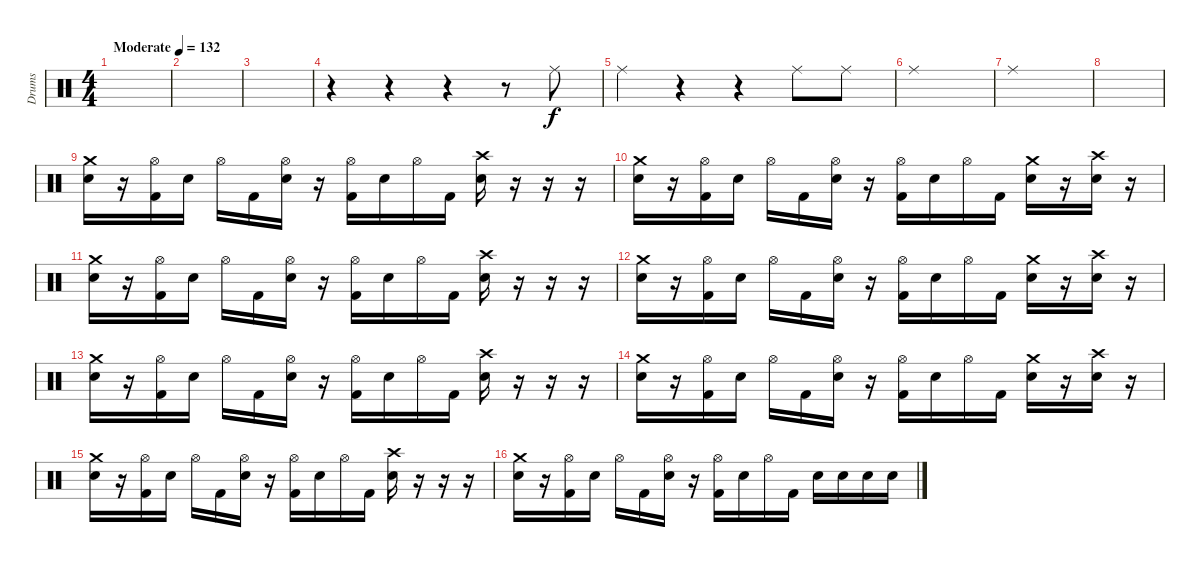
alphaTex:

\track ("Drums" "Drums") {instrument percussion}
\staff
\articulation defaults
\ts (4 4)
\tempo (132 "Moderate")
\clef neutral
\ks c
|
|
|
r.4 r.4 r.4 r.8 "Ride (middle)".8 |
"Ride (middle)".4 r.4 r.4 "Ride (middle)".8 "Ride (middle)".8 |
"Ride (middle)".1 |
"Ride (middle)".1 |
|
("Crash medium (hit)" "Snare (hit) 2").16 r.16 ("Hi-Hat (open)" "Kick (hit) 2").16 "Snare (hit) 2".16 "Hi-Hat (open)".16 "Kick (hit) 2".16 ("Hi-Hat (open)" "Snare (hit) 2").16 r.16 ("Hi-Hat (open)" "Kick (hit) 2").16 "Snare (hit) 2".16 "Hi-Hat (open)".16 "Kick (hit) 2".16 ("Crash high (hit)" "Snare (hit) 2").16 r.16 r.16 r.16 |
("Crash medium (hit)" "Snare (hit) 2").16 r.16 ("Hi-Hat (open)" "Kick (hit) 2").16 "Snare (hit) 2".16 "Hi-Hat (open)".16 "Kick (hit) 2".16 ("Hi-Hat (open)" "Snare (hit) 2").16 r.16 ("Hi-Hat (open)" "Kick (hit) 2").16 "Snare (hit) 2".16 "Hi-Hat (open)".16 "Kick (hit) 2".16 ("Crash medium (hit)" "Snare (hit) 2").16 r.16 ("Crash high (hit)" "Snare (hit) 2").16 r.16 |
("Crash medium (hit)" "Snare (hit) 2").16 r.16 ("Hi-Hat (open)" "Kick (hit) 2").16 "Snare (hit) 2".16 "Hi-Hat (open)".16 "Kick (hit) 2".16 ("Hi-Hat (open)" "Snare (hit) 2").16 r.16 ("Hi-Hat (open)" "Kick (hit) 2").16 "Snare (hit) 2".16 "Hi-Hat (open)".16 "Kick (hit) 2".16 ("Crash high (hit)" "Snare (hit) 2").16 r.16 r.16 r.16 |
("Crash medium (hit)" "Snare (hit) 2").16 r.16 ("Hi-Hat (open)" "Kick (hit) 2").16 "Snare (hit) 2".16 "Hi-Hat (open)".16 "Kick (hit) 2".16 ("Hi-Hat (open)" "Snare (hit) 2").16 r.16 ("Hi-Hat (open)" "Kick (hit) 2").16 "Snare (hit) 2".16 "Hi-Hat (open)".16 "Kick (hit) 2".16 ("Crash medium (hit)" "Snare (hit) 2").16 r.16 ("Crash high (hit)" "Snare (hit) 2").16 r.16 |
("Crash medium (hit)" "Snare (hit) 2").16 r.16 ("Hi-Hat (open)" "Kick (hit) 2").16 "Snare (hit) 2".16 "Hi-Hat (open)".16 "Kick (hit) 2".16 ("Hi-Hat (open)" "Snare (hit) 2").16 r.16 ("Hi-Hat (open)" "Kick (hit) 2").16 "Snare (hit) 2".16 "Hi-Hat (open)".16 "Kick (hit) 2".16 ("Crash high (hit)" "Snare (hit) 2").16 r.16 r.16 r.16 |
("Crash medium (hit)" "Snare (hit) 2").16 r.16 ("Hi-Hat (open)" "Kick (hit) 2").16 "Snare (hit) 2".16 "Hi-Hat (open)".16 "Kick (hit) 2".16 ("Hi-Hat (open)" "Snare (hit) 2").16 r.16 ("Hi-Hat (open)" "Kick (hit) 2").16 "Snare (hit) 2".16 "Hi-Hat (open)".16 "Kick (hit) 2".16 ("Crash medium (hit)" "Snare (hit) 2").16 r.16 ("Crash high (hit)" "Snare (hit) 2").16 r.16 |
("Crash medium (hit)" "Snare (hit) 2").16 r.16 ("Hi-Hat (open)" "Kick (hit) 2").16 "Snare (hit) 2".16 "Hi-Hat (open)".16 "Kick (hit) 2".16 ("Hi-Hat (open)" "Snare (hit) 2").16 r.16 ("Hi-Hat (open)" "Kick (hit) 2").16 "Snare (hit) 2".16 "Hi-Hat (open)".16 "Kick (hit) 2".16 ("Crash high (hit)" "Snare (hit) 2").16 r.16 r.16 r.16 |
("Crash medium (hit)" "Snare (hit) 2").16 r.16 ("Hi-Hat (open)" "Kick (hit) 2").16 "Snare (hit) 2".16 "Hi-Hat (open)".16 "Kick (hit) 2".16 ("Hi-Hat (open)" "Snare (hit) 2").16 r.16 ("Hi-Hat (open)" "Kick (hit) 2").16 "Snare (hit) 2".16 "Hi-Hat (open)".16 "Kick (hit) 2".16 "Snare (hit) 2".16 "Snare (hit) 2".16 "Snare (hit) 2".16 "Snare (hit) 2".16
